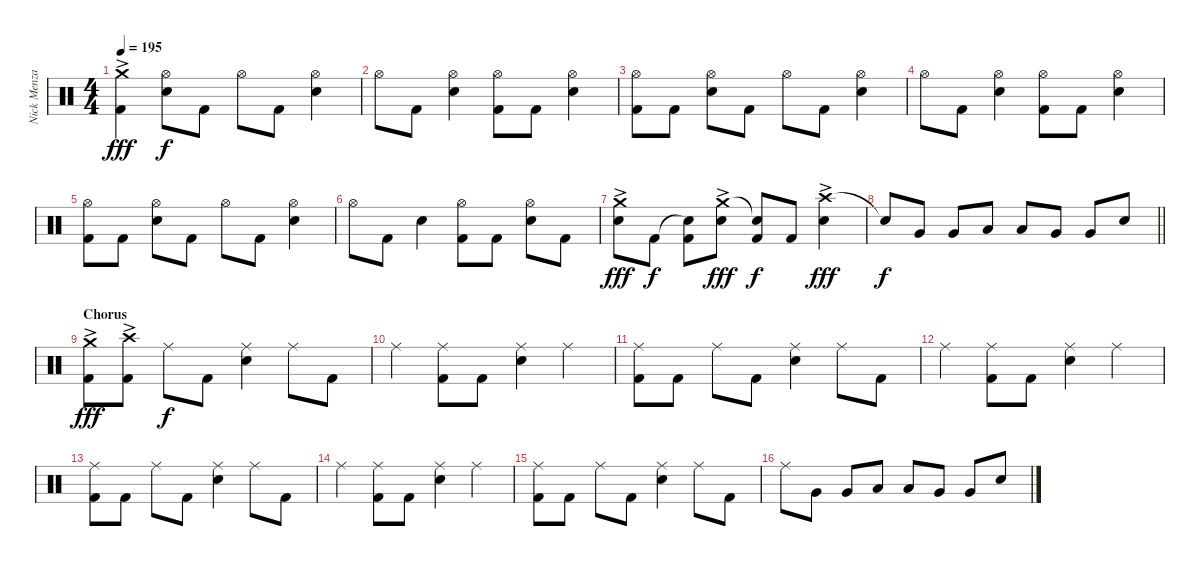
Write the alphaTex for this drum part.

\track ("Nick Menza" "Nick Menza") {instrument percussion}
\staff {score}
\articulation defaults
\ts (4 4)
\tempo 195
\clef neutral
\ks c
("Crash medium (hit)"{ac} "Kick (hit) 2").4{dy fff} ("Hi-Hat (open)" "Snare (hit) 2").8{dy f} "Kick (hit) 2".8 "Hi-Hat (open)".8 "Kick (hit) 2".8 ("Hi-Hat (open)" "Snare (hit) 2").4 |
"Hi-Hat (open)".8 "Kick (hit) 2".8 ("Hi-Hat (open)" "Snare (hit) 2").4 ("Hi-Hat (open)" "Kick (hit) 2").8 "Kick (hit) 2".8 ("Hi-Hat (open)" "Snare (hit) 2").4 |
("Hi-Hat (open)" "Kick (hit) 2").8 "Kick (hit) 2".8 ("Hi-Hat (open)" "Snare (hit) 2").8 "Kick (hit) 2".8 "Hi-Hat (open)".8 "Kick (hit) 2".8 ("Hi-Hat (open)" "Snare (hit) 2").4 |
"Hi-Hat (open)".8 "Kick (hit) 2".8 ("Hi-Hat (open)" "Snare (hit) 2").4 ("Hi-Hat (open)" "Kick (hit) 2").8 "Kick (hit) 2".8 ("Hi-Hat (open)" "Snare (hit) 2").4 |
("Hi-Hat (open)" "Kick (hit) 2").8 "Kick (hit) 2".8 ("Hi-Hat (open)" "Snare (hit) 2").8 "Kick (hit) 2".8 "Hi-Hat (open)".8 "Kick (hit) 2".8 ("Hi-Hat (open)" "Snare (hit) 2").4 |
"Hi-Hat (open)".8 "Kick (hit) 2".8 "Snare (hit) 2".4 ("Hi-Hat (open)" "Kick (hit) 2").8 "Kick (hit) 2".8 ("Hi-Hat (open)" "Snare (hit) 2").8 "Kick (hit) 2".8 |
("Crash medium (hit)"{ac} "Snare (hit) 2").8{dy fff} "Kick (hit) 2".8{dy f} ("Snare (hit)"{t} "Kick (hit) 2").8 ("Crash medium (hit)"{ac} "Snare (hit) 2").8{dy fff} ("Snare (hit)"{t} "Kick (hit) 2").8{dy f} "Kick (hit) 2".8 ("Crash high (hit)"{ac} "Snare (hit) 2").4{dy fff} |
\barLineRight lightlight "Snare (hit)"{t}.8{dy f} "Very Low Tom (hit)".8 "Very Low Tom (hit)".8 "Low Tom (hit)".8 "Low Tom (hit)".8 "Very Low Tom (hit)".8 "Very Low Tom (hit)".8 "Snare (hit) 2".8
|
\section ("" "Chorus")
("Crash medium (hit)"{ac} "Kick (hit) 2").8{dy fff} ("Crash high (hit)"{ac} "Kick (hit) 2").8 "Ride (middle)".8{dy f} "Kick (hit) 2".8 ("Ride (middle)" "Snare (hit) 2").4 "Ride (middle)".8 "Kick (hit) 2".8 |
"Ride (middle)".4 ("Ride (middle)" "Kick (hit) 2").8 "Kick (hit) 2".8 ("Ride (middle)" "Snare (hit) 2").4 "Ride (middle)".4 |
("Ride (middle)" "Kick (hit) 2").8 "Kick (hit) 2".8 "Ride (middle)".8 "Kick (hit) 2".8 ("Ride (middle)" "Snare (hit) 2").4 "Ride (middle)".8 "Kick (hit) 2".8 |
"Ride (middle)".4 ("Ride (middle)" "Kick (hit) 2").8 "Kick (hit) 2".8 ("Ride (middle)" "Snare (hit) 2").4 "Ride (middle)".4 |
("Ride (middle)" "Kick (hit) 2").8 "Kick (hit) 2".8 "Ride (middle)".8 "Kick (hit) 2".8 ("Ride (middle)" "Snare (hit) 2").4 "Ride (middle)".8 "Kick (hit) 2".8 |
"Ride (middle)".4 ("Ride (middle)" "Kick (hit) 2").8 "Kick (hit) 2".8 ("Ride (middle)" "Snare (hit) 2").4 "Ride (middle)".4 |
("Ride (middle)" "Kick (hit) 2").8 "Kick (hit) 2".8 "Ride (middle)".8 "Kick (hit) 2".8 ("Ride (middle)" "Snare (hit) 2").4 "Ride (middle)".8 "Kick (hit) 2".8 |
"Ride (middle)".8 "Very Low Tom (hit)".8 "Very Low Tom (hit)".8 "Low Tom (hit)".8 "Low Tom (hit)".8 "Very Low Tom (hit)".8 "Very Low Tom (hit)".8 "Snare (hit) 2".8
